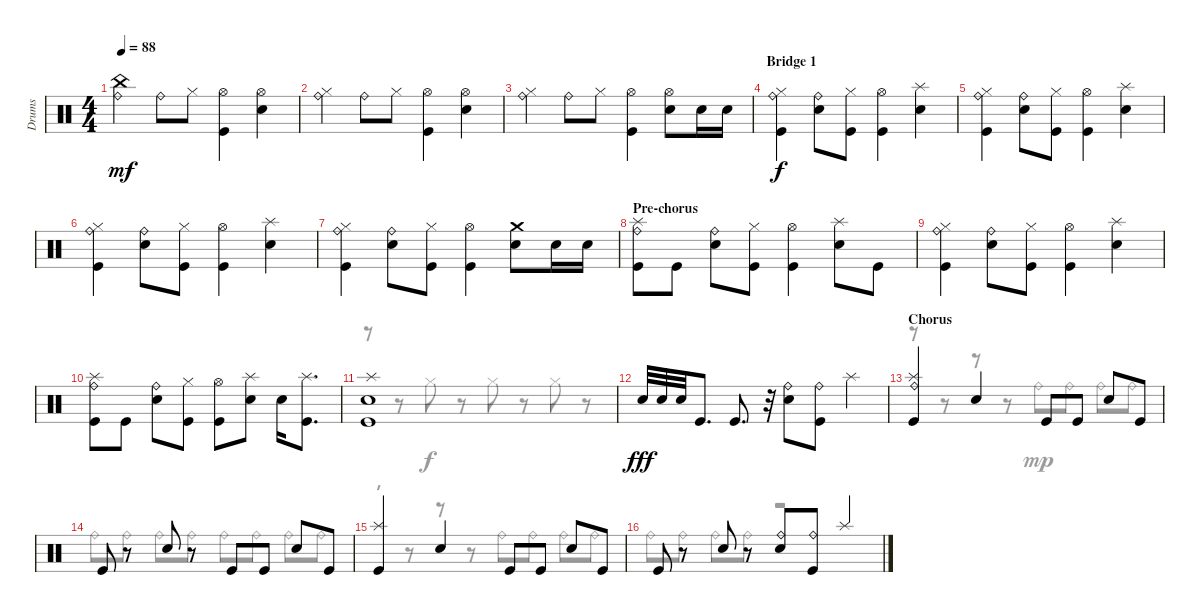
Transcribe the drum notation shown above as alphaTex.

\track ("Drums" "Drums") {instrument percussion}
\staff {score}
\articulation defaults
\voice
\ts (4 4)
\tempo 88
\clef neutral
\ks c
("Ride (bell)" "China (hit)").4{dy mf} "Ride (bell)".8 "Hi-Hat (closed)".8 ("Kick (hit)" "Hi-Hat (open)").4 ("Snare (hit) 2" "Hi-Hat (open)").4 |
("Ride (bell)" "Hi-Hat (closed)").4 "Ride (bell)".8 "Hi-Hat (closed)".8 ("Kick (hit)" "Hi-Hat (open)").4 ("Snare (hit) 2" "Hi-Hat (open)").4 |
("Ride (bell)" "Hi-Hat (closed)").4 "Ride (bell)".8 "Hi-Hat (closed)".8 ("Kick (hit)" "Hi-Hat (open)").4 ("Snare (hit) 2" "Hi-Hat (open)").8 "Snare (hit) 2".16 "Snare (hit) 2".16 |
\section ("" "Bridge 1")
("Ride (bell)" "Hi-Hat (closed)" "Kick (hit)").4{dy f} ("Ride (bell)" "Snare (hit) 2").8 ("Hi-Hat (closed)" "Kick (hit)").8 ("Kick (hit)" "Hi-Hat (open)").4 ("Snare (hit) 2" "Splash (hit)").4 |
("Ride (bell)" "Hi-Hat (closed)" "Kick (hit)").4 ("Ride (bell)" "Snare (hit) 2").8 ("Hi-Hat (closed)" "Kick (hit)").8 ("Kick (hit)" "Hi-Hat (open)").4 ("Snare (hit) 2" "Splash (hit)").4 |
("Ride (bell)" "Hi-Hat (closed)" "Kick (hit)").4 ("Ride (bell)" "Snare (hit) 2").8 ("Hi-Hat (closed)" "Kick (hit)").8 ("Kick (hit)" "Hi-Hat (open)").4 ("Snare (hit) 2" "Splash (hit)").4 |
("Ride (bell)" "Hi-Hat (closed)" "Kick (hit)").4 ("Ride (bell)" "Snare (hit) 2").8 ("Hi-Hat (closed)" "Kick (hit)").8 ("Kick (hit)" "Hi-Hat (open)").4 ("Snare (hit) 2" "Crash medium (hit)").8 "Snare (hit) 2".16 "Snare (hit) 2".16 |
\section ("" "Pre-chorus")
("Ride (bell)" "Kick (hit)" "Splash (hit)").8 "Kick (hit)".8 ("Ride (bell)" "Snare (hit) 2").8 ("Hi-Hat (closed)" "Kick (hit)").8 ("Kick (hit)" "Hi-Hat (open)").4 ("Snare (hit) 2" "Splash (hit)").8 "Kick (hit)".8 |
("Ride (bell)" "Hi-Hat (closed)" "Kick (hit)").4 ("Ride (bell)" "Snare (hit) 2").8 ("Hi-Hat (closed)" "Kick (hit)").8 ("Kick (hit)" "Hi-Hat (open)").4 ("Snare (hit) 2" "Splash (hit)").4 |
("Ride (bell)" "Kick (hit)" "Splash (hit)").8 "Kick (hit)".8 ("Ride (bell)" "Snare (hit) 2").8 ("Hi-Hat (closed)" "Kick (hit)").8 ("Kick (hit)" "Hi-Hat (open)").8 ("Snare (hit) 2" "Splash (hit)").8 "Snare (hit) 2".16 ("Kick (hit)" "Splash (hit)").8{d} |
("Splash (hit)" "Snare (hit) 2" "Kick (hit)").1 |
"Snare (hit) 2".32{dy fff} "Snare (hit) 2".32 "Snare (hit) 2".32 "Kick (hit)".8{d} "Kick (hit)".8{d} r.32 ("Snare (hit) 2" "Ride (bell)").8 ("Kick (hit)" "Ride (bell)").8 "Splash (hit)".4 |
\section ("" "Chorus")
("Kick (hit)" "Splash (hit)" "Ride (bell)").4 "Snare (hit) 2".4 "Kick (hit)".8 "Kick (hit)".8 "Snare (hit) 2".8 "Kick (hit)".8 |
"Kick (hit)".8 r.8 "Snare (hit) 2".8 r.8 "Kick (hit)".8 "Kick (hit)".8 "Snare (hit) 2".8 "Kick (hit)".8 |
("Kick (hit)" "Splash (hit)").4 "Snare (hit) 2".4 "Kick (hit)".8 "Kick (hit)".8 "Snare (hit) 2".8 "Kick (hit)".8 |
"Kick (hit)".8 r.8 "Snare (hit) 2".8 r.8 ("Snare (hit) 2" "Ride (bell)").8 ("Kick (hit)" "Ride (bell)").8 "Splash (hit)".4
\voice
\clef neutral
\ottava regular
\simile none
\ks c
|
|
|
|
|
|
|
|
|
|
r.8 r.8 "Hi-Hat (closed)".8{dy f} r.8 "Hi-Hat (closed)".8 r.8 "Hi-Hat (closed)".8 r.8 |
|
r.8 r.8 r.8 r.8 "Ride (bell)".8{dy mp} "Ride (bell)".8 "Ride (bell)".8 "Ride (bell)".8 |
"Ride (bell)".8 "Ride (bell)".8 "Ride (bell)".8 "Ride (bell)".8 "Ride (bell)".8 "Ride (bell)".8 "Ride (bell)".8 "Ride (bell)".8 |
r.8 r.8 r.8 r.8 "Ride (bell)".8 "Ride (bell)".8 "Ride (bell)".8 "Ride (bell)".8 |
"Ride (bell)".8 "Ride (bell)".8 "Ride (bell)".8 "Ride (bell)".8 r.2
